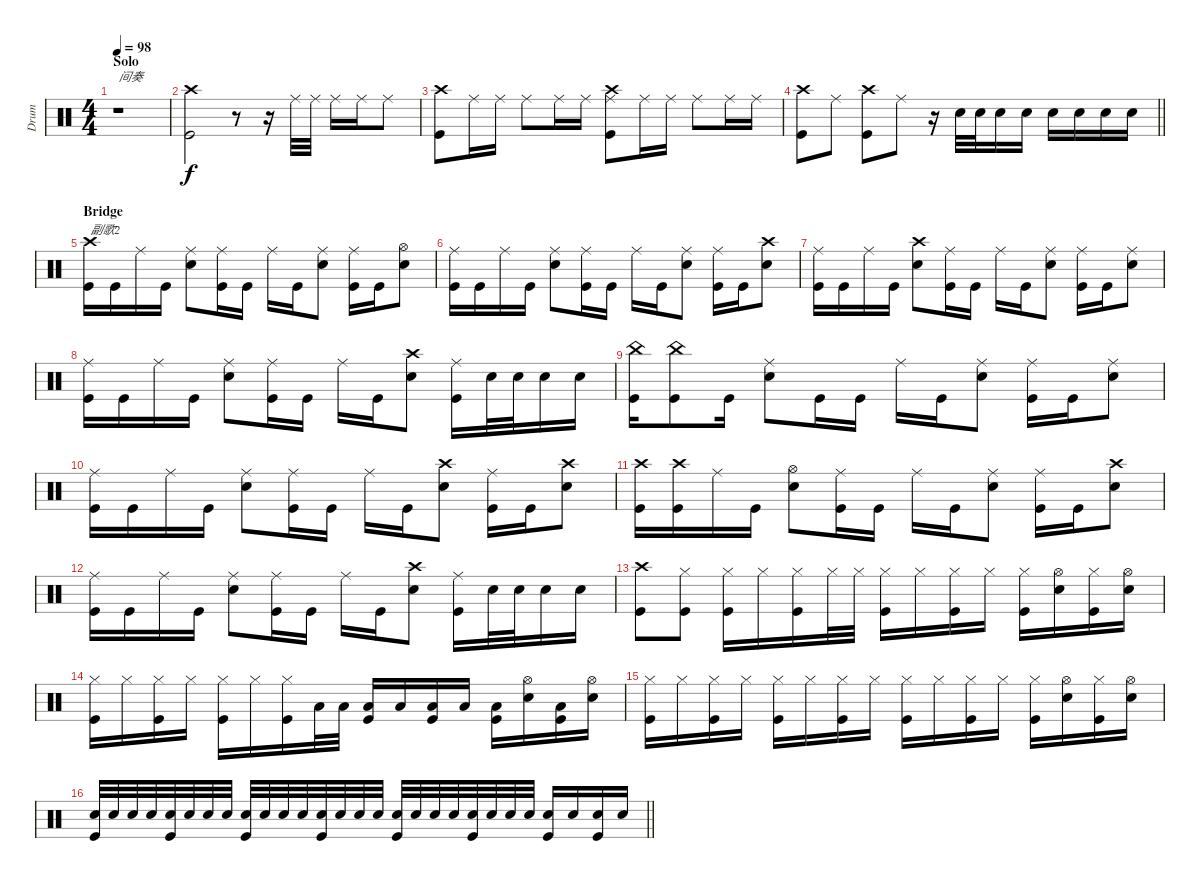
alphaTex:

\track ("Drum" "Drum") {instrument percussion}
\staff {score}
\articulation defaults
\ts (4 4)
\section ("" "Solo")
\tempo 98
\clef neutral
\ks c
r.1{txt "间奏" dy f} |
("Crash high (hit)" "Kick (hit)").2 r.8 r.16 "Ride (middle)".32 "Ride (middle)".32 "Ride (middle)".16 "Ride (middle)".16 "Ride (middle)".8 |
("Crash high (hit)" "Kick (hit)").8 "Ride (middle)".16 "Ride (middle)".16 "Ride (middle)".8 "Ride (middle)".16 "Ride (middle)".16 ("Crash high (hit)" "Kick (hit)" "Ride (middle)").8 "Ride (middle)".16 "Ride (middle)".16 "Ride (middle)".8 "Ride (middle)".16 "Ride (middle)".16 |
\barLineRight lightlight
("Crash high (hit)" "Kick (hit)").8 "Ride (middle)".8 ("Kick (hit)" "Crash high (hit)").8 "Ride (middle)".8 r.16 "Snare (hit) 2".32 "Snare (hit) 2".32 "Snare (hit) 2".16 "Snare (hit) 2".16 "Snare (hit) 2".16 "Snare (hit) 2".16 "Snare (hit) 2".16 "Snare (hit) 2".16 |
\section ("" "Bridge")
("Crash high (hit)" "Kick (hit)").16{txt "副歌2"} "Kick (hit)".16 "Ride (middle)".16 "Kick (hit)".16 ("Snare (hit) 2" "Ride (middle)").8 ("Kick (hit)" "Ride (middle)").16 "Kick (hit)".16 "Ride (middle)".16 "Kick (hit)".16 ("Snare (hit) 2" "Ride (middle)").8 ("Kick (hit)" "Ride (middle)").16 "Kick (hit)".16 ("Snare (hit) 2" "Hi-Hat (open)").8 |
("Ride (middle)" "Kick (hit)").16 "Kick (hit)".16 "Ride (middle)".16 "Kick (hit)".16 ("Snare (hit) 2" "Ride (middle)").8 ("Ride (middle)" "Kick (hit)").16 "Kick (hit)".16 "Ride (middle)".16 "Kick (hit)".16 ("Snare (hit) 2" "Ride (middle)").8 ("Kick (hit)" "Ride (middle)").16 "Kick (hit)".16 ("Snare (hit) 2" "Crash high (hit)").8 |
("Ride (middle)" "Kick (hit)").16 "Kick (hit)".16 "Ride (middle)".16 "Kick (hit)".16 ("Snare (hit) 2" "Crash high (hit)").8 ("Kick (hit)" "Ride (middle)").16 "Kick (hit)".16 "Ride (middle)".16 "Kick (hit)".16 ("Snare (hit) 2" "Ride (middle)").8 ("Kick (hit)" "Ride (middle)").16 "Kick (hit)".16 ("Snare (hit) 2" "Ride (middle)").8 |
("Kick (hit)" "Ride (middle)").16 "Kick (hit)".16 "Ride (middle)".16 "Kick (hit)".16 ("Snare (hit) 2" "Ride (middle)").8 ("Ride (middle)" "Kick (hit)").16 "Kick (hit)".16 "Ride (middle)".16 "Kick (hit)".16 ("Snare (hit) 2" "Crash high (hit)").8 ("Kick (hit)" "Ride (middle)").16 "Snare (hit) 2".32 "Snare (hit) 2".32 "Snare (hit) 2".16 "Snare (hit) 2".16 |
("China (hit)" "Kick (hit)").16 ("Kick (hit)" "China (hit)").8 "Kick (hit)".16 ("Snare (hit) 2" "Ride (middle)").8 "Kick (hit)".16 "Kick (hit)".16 "Ride (middle)".16 "Kick (hit)".16 ("Snare (hit) 2" "Ride (middle)").8 ("Kick (hit)" "Ride (middle)").16 "Kick (hit)".16 ("Snare (hit) 2" "Ride (middle)").8 |
("Kick (hit)" "Ride (middle)").16 "Kick (hit)".16 "Ride (middle)".16 "Kick (hit)".16 ("Snare (hit) 2" "Ride (middle)").8 ("Ride (middle)" "Kick (hit)").16 "Kick (hit)".16 "Ride (middle)".16 "Kick (hit)".16 ("Snare (hit) 2" "Crash high (hit)").8 ("Kick (hit)" "Ride (middle)").16 "Kick (hit)".16 ("Snare (hit) 2" "Crash high (hit)").8 |
("Crash high (hit)" "Kick (hit)").16 ("Kick (hit)" "Crash high (hit)").16 "Ride (middle)".16 "Kick (hit)".16 ("Snare (hit) 2" "Hi-Hat (open)").8 ("Kick (hit)" "Ride (middle)").16 "Kick (hit)".16 "Ride (middle)".16 "Kick (hit)".16 ("Snare (hit) 2" "Ride (middle)").8 ("Kick (hit)" "Ride (middle)").16 "Kick (hit)".16 ("Snare (hit) 2" "Crash high (hit)").8 |
("Kick (hit)" "Ride (middle)").16 "Kick (hit)".16 "Ride (middle)".16 "Kick (hit)".16 ("Snare (hit) 2" "Ride (middle)").8 ("Ride (middle)" "Kick (hit)").16 "Kick (hit)".16 "Ride (middle)".16 "Kick (hit)".16 ("Snare (hit) 2" "Crash high (hit)").8 ("Kick (hit)" "Ride (middle)").16 "Snare (hit) 2".32 "Snare (hit) 2".32 "Snare (hit) 2".16 "Snare (hit) 2".16 |
("Crash high (hit)" "Kick (hit)").8 ("Kick (hit)" "Hi-Hat (closed)").8 ("Kick (hit)" "Hi-Hat (closed)").16 "Hi-Hat (closed)".16 ("Kick (hit)" "Hi-Hat (closed)").16 "Hi-Hat (closed)".32 "Hi-Hat (closed)".32 ("Kick (hit)" "Hi-Hat (closed)").16 "Hi-Hat (closed)".16 ("Kick (hit)" "Hi-Hat (closed)").16 "Hi-Hat (closed)".16 ("Kick (hit)" "Hi-Hat (closed)").16 ("Snare (hit) 2" "Hi-Hat (open)").16 ("Kick (hit)" "Hi-Hat (closed)").16 ("Snare (hit) 2" "Hi-Hat (open)").16 |
("Kick (hit)" "Hi-Hat (closed)").16 "Hi-Hat (closed)".16 ("Kick (hit)" "Hi-Hat (closed)").16 "Hi-Hat (closed)".16 ("Kick (hit)" "Hi-Hat (closed)").16 "Hi-Hat (closed)".16 ("Kick (hit)" "Hi-Hat (closed)").16 "Low Tom (hit)".32 "Low Tom (hit)".32 ("Kick (hit)" "Low Tom (hit)").16 "Low Tom (hit)".16 ("Kick (hit)" "Low Tom (hit)").16 "Low Tom (hit)".16 ("Kick (hit)" "Low Tom (hit)").16 ("Snare (hit) 2" "Hi-Hat (open)").16 ("Kick (hit)" "Low Tom (hit)").16 ("Snare (hit) 2" "Hi-Hat (open)").16 |
("Kick (hit)" "Hi-Hat (closed)").16 "Hi-Hat (closed)".16 ("Kick (hit)" "Hi-Hat (closed)").16 "Hi-Hat (closed)".16 ("Kick (hit)" "Hi-Hat (closed)").16 "Hi-Hat (closed)".16 ("Kick (hit)" "Hi-Hat (closed)").16 "Hi-Hat (closed)".16 ("Kick (hit)" "Hi-Hat (closed)").16 "Hi-Hat (closed)".16 ("Kick (hit)" "Hi-Hat (closed)").16 "Hi-Hat (closed)".16 ("Kick (hit)" "Hi-Hat (closed)").16 ("Snare (hit) 2" "Hi-Hat (open)").16 ("Kick (hit)" "Hi-Hat (closed)").16 ("Snare (hit) 2" "Hi-Hat (open)").16 |
\barLineRight lightlight
("Kick (hit)" "Snare (hit) 2").32 "Snare (hit) 2".32 "Snare (hit) 2".32 "Snare (hit) 2".32 ("Kick (hit)" "Snare (hit) 2").32 "Snare (hit) 2".32 "Snare (hit) 2".32 "Snare (hit) 2".32 ("Kick (hit)" "Snare (hit) 2").32 "Snare (hit) 2".32 "Snare (hit) 2".32 "Snare (hit) 2".32 ("Kick (hit)" "Snare (hit) 2").32 "Snare (hit) 2".32 "Snare (hit) 2".32 "Snare (hit) 2".32 ("Kick (hit)" "Snare (hit) 2").32 "Snare (hit) 2".32 "Snare (hit) 2".32 "Snare (hit) 2".32 ("Kick (hit)" "Snare (hit) 2").32 "Snare (hit) 2".32 "Snare (hit) 2".32 "Snare (hit) 2".32 ("Kick (hit)" "Snare (hit) 2").16 "Snare (hit) 2".16 ("Kick (hit)" "Snare (hit) 2").16 "Snare (hit) 2".16
